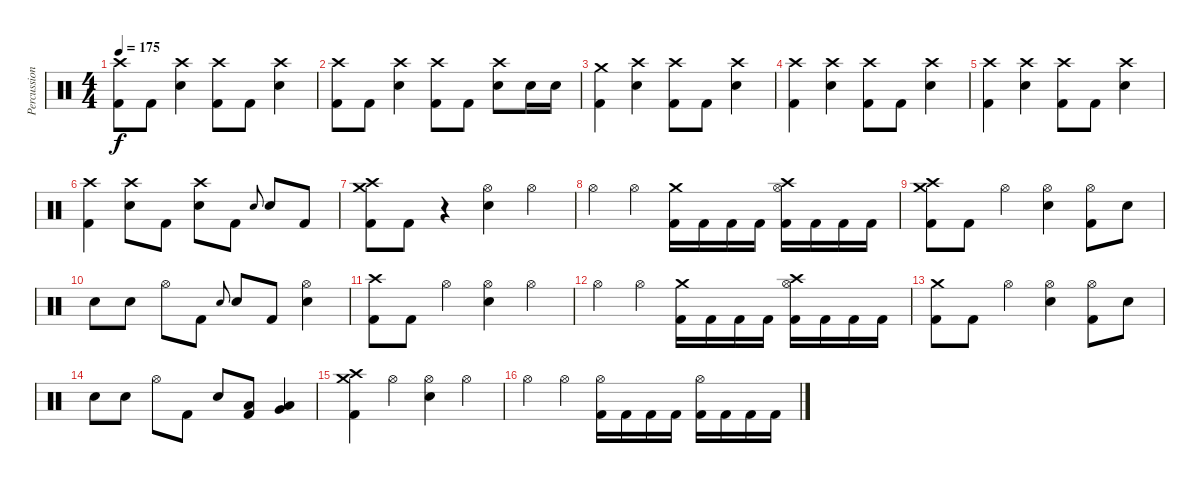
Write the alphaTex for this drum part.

\track ("Percussion" "Percussion") {instrument percussion}
\staff {score}
\articulation defaults
\ts (4 4)
\tempo 175
\clef neutral
\ks c
("Crash high (hit)" "Kick (hit) 2").8{dy f} "Kick (hit) 2".8 ("Crash high (hit)" "Electric Snare (hit)").4 ("Crash high (hit)" "Kick (hit) 2").8 "Kick (hit) 2".8 ("Crash high (hit)" "Electric Snare (hit)").4 |
("Crash high (hit)" "Kick (hit) 2").8 "Kick (hit) 2".8 ("Crash high (hit)" "Electric Snare (hit)").4 ("Crash high (hit)" "Kick (hit) 2").8 "Kick (hit) 2".8 ("Crash high (hit)" "Electric Snare (hit)").8 "Electric Snare (hit)".16 "Electric Snare (hit)".16 |
("Crash medium (hit)" "Kick (hit) 2").4 ("Crash high (hit)" "Electric Snare (hit)").4 ("Crash high (hit)" "Kick (hit) 2").8 "Kick (hit) 2".8 ("Crash high (hit)" "Electric Snare (hit)").4 |
("Crash high (hit)" "Kick (hit) 2").4 ("Crash high (hit)" "Electric Snare (hit)").4 ("Crash high (hit)" "Kick (hit) 2").8 "Kick (hit) 2".8 ("Crash high (hit)" "Electric Snare (hit)").4 |
("Crash high (hit)" "Kick (hit) 2").4 ("Crash high (hit)" "Electric Snare (hit)").4 ("Crash high (hit)" "Kick (hit) 2").8 "Kick (hit) 2".8 ("Crash high (hit)" "Electric Snare (hit)").4 |
("Crash high (hit)" "Kick (hit) 2").4 ("Crash high (hit)" "Electric Snare (hit)").8 "Kick (hit) 2".8 ("Crash high (hit)" "Electric Snare (hit)").8 "Kick (hit) 2".8 "Electric Snare (hit)".8{gr onbeat} "Electric Snare (hit)".8 "Kick (hit) 2".8 |
("Crash medium (hit)" "Crash high (hit)" "Kick (hit) 2").8 "Kick (hit) 2".8 r.4 ("Hi-Hat (open)" "Electric Snare (hit)").4 "Hi-Hat (open)".4 |
"Hi-Hat (open)".4 "Hi-Hat (open)".4 ("Crash medium (hit)" "Kick (hit) 2").16 "Kick (hit) 2".16 "Kick (hit) 2".16 "Kick (hit) 2".16 ("Crash high (hit)" "Hi-Hat (open)" "Kick (hit) 2").16 "Kick (hit) 2".16 "Kick (hit) 2".16 "Kick (hit) 2".16 |
("Crash medium (hit)" "Crash high (hit)" "Kick (hit) 2").8 "Kick (hit) 2".8 "Hi-Hat (open)".4 ("Hi-Hat (open)" "Electric Snare (hit)").4 ("Hi-Hat (open)" "Kick (hit) 2").8 "Electric Snare (hit)".8 |
"Electric Snare (hit)".8 "Electric Snare (hit)".8 "Hi-Hat (open)".8 "Kick (hit) 2".8 "Electric Snare (hit)".8{gr onbeat} "Electric Snare (hit)".8 "Kick (hit) 2".8 ("Hi-Hat (open)" "Electric Snare (hit)").4 |
("Crash high (hit)" "Kick (hit) 2").8 "Kick (hit) 2".8 "Hi-Hat (open)".4 ("Hi-Hat (open)" "Electric Snare (hit)").4 "Hi-Hat (open)".4 |
"Hi-Hat (open)".4 "Hi-Hat (open)".4 ("Crash medium (hit)" "Kick (hit) 2").16 "Kick (hit) 2".16 "Kick (hit) 2".16 "Kick (hit) 2".16 ("Crash high (hit)" "Hi-Hat (open)" "Kick (hit) 2").16 "Kick (hit) 2".16 "Kick (hit) 2".16 "Kick (hit) 2".16 |
("Crash medium (hit)" "Kick (hit) 2").8 "Kick (hit) 2".8 "Hi-Hat (open)".4 ("Hi-Hat (open)" "Electric Snare (hit)").4 ("Hi-Hat (open)" "Kick (hit) 2").8 "Electric Snare (hit)".8 |
"Electric Snare (hit)".8 "Electric Snare (hit)".8 "Hi-Hat (open)".8 "Kick (hit) 2".8 "Electric Snare (hit)".8 ("Low Tom (hit)" "Kick (hit) 2").8 ("Low Tom (hit)" "Very Low Tom (hit)").4 |
("Crash medium (hit)" "Crash high (hit)" "Kick (hit) 2").4 "Hi-Hat (open)".4 ("Hi-Hat (open)" "Electric Snare (hit)").4 "Hi-Hat (open)".4 |
"Hi-Hat (open)".4 "Hi-Hat (open)".4 ("Hi-Hat (open)" "Kick (hit) 2").16 "Kick (hit) 2".16 "Kick (hit) 2".16 "Kick (hit) 2".16 ("Hi-Hat (open)" "Kick (hit) 2").16 "Kick (hit) 2".16 "Kick (hit) 2".16 "Kick (hit) 2".16
